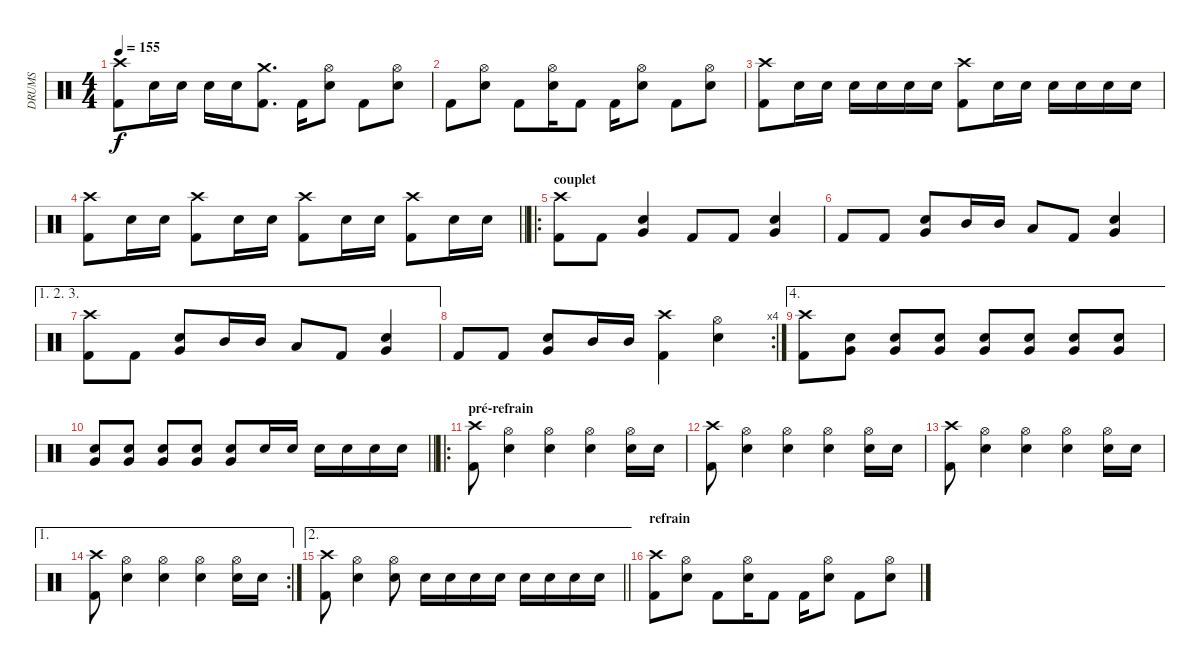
\track ("DRUMS" "DRUMS") {instrument percussion}
\staff {score}
\articulation defaults
\ts (4 4)
\tempo 155
\clef neutral
\ks c
("Crash high (hit)" "Kick (hit) 2").8{dy f} "Electric Snare (hit)".16 "Electric Snare (hit)".16 "Electric Snare (hit)".16 "Electric Snare (hit)".16 ("Crash medium (hit)" "Kick (hit) 2").8{d} "Kick (hit) 2".16 ("Hi-Hat (open)" "Electric Snare (hit)").8 "Kick (hit) 2".8 ("Hi-Hat (open)" "Electric Snare (hit)").8 |
"Kick (hit) 2".8 ("Hi-Hat (open)" "Electric Snare (hit)").8 "Kick (hit) 2".8 ("Hi-Hat (open)" "Electric Snare (hit)").16 "Kick (hit) 2".8 "Kick (hit) 2".16 ("Hi-Hat (open)" "Electric Snare (hit)").8 "Kick (hit) 2".8 ("Hi-Hat (open)" "Electric Snare (hit)").8 |
("Crash high (hit)" "Kick (hit) 2").8 "Electric Snare (hit)".16 "Electric Snare (hit)".16 "Electric Snare (hit)".16 "Electric Snare (hit)".16 "Electric Snare (hit)".16 "Electric Snare (hit)".16 ("Crash high (hit)" "Kick (hit) 2").8 "Electric Snare (hit)".16 "Electric Snare (hit)".16 "Electric Snare (hit)".16 "Electric Snare (hit)".16 "Electric Snare (hit)".16 "Electric Snare (hit)".16 |
\barLineRight lightlight
("Crash high (hit)" "Kick (hit) 2").8 "Electric Snare (hit)".16 "Electric Snare (hit)".16 ("Crash high (hit)" "Kick (hit) 2").8 "Electric Snare (hit)".16 "Electric Snare (hit)".16 ("Crash high (hit)" "Kick (hit) 2").8 "Electric Snare (hit)".16 "Electric Snare (hit)".16 ("Crash high (hit)" "Kick (hit) 2").8 "Electric Snare (hit)".16 "Electric Snare (hit)".16 |
\ro
\section ("" "couplet")
("Crash high (hit)" "Kick (hit) 2").8 "Kick (hit) 2".8 ("Very Low Tom (hit)" "Electric Snare (hit)").4 "Kick (hit) 2".8 "Kick (hit) 2".8 ("Very Low Tom (hit)" "Electric Snare (hit)").4 |
"Kick (hit) 2".8 "Kick (hit) 2".8 ("Very Low Tom (hit)" "Electric Snare (hit)").8 "Mid Tom (hit)".16 "Mid Tom (hit)".16 "Low Tom (hit)".8 "Kick (hit) 2".8 ("Electric Snare (hit)" "Very Low Tom (hit)").4 |
\ae (1 2 3)
("Crash high (hit)" "Kick (hit) 2").8 "Kick (hit) 2".8 ("Very Low Tom (hit)" "Electric Snare (hit)").8 "Mid Tom (hit)".16 "Mid Tom (hit)".16 "Low Tom (hit)".8 "Kick (hit) 2".8 ("Very Low Tom (hit)" "Electric Snare (hit)").4 |
\rc 4 "Kick (hit) 2".8 "Kick (hit) 2".8
("Very Low Tom (hit)" "Electric Snare (hit)").8 "Mid Tom (hit)".16 "Mid Tom (hit)".16 ("Crash high (hit)" "Kick (hit) 2").4 ("Hi-Hat (open)" "Electric Snare (hit)").4 |
\ae 4
("Crash high (hit)" "Kick (hit) 2").8 ("Very Low Tom (hit)" "Electric Snare (hit)").8 ("Very Low Tom (hit)" "Electric Snare (hit)").8 ("Very Low Tom (hit)" "Electric Snare (hit)").8 ("Very Low Tom (hit)" "Electric Snare (hit)").8 ("Very Low Tom (hit)" "Electric Snare (hit)").8 ("Very Low Tom (hit)" "Electric Snare (hit)").8 ("Very Low Tom (hit)" "Electric Snare (hit)").8 |
\barLineRight lightlight
("Very Low Tom (hit)" "Electric Snare (hit)").8 ("Very Low Tom (hit)" "Electric Snare (hit)").8 ("Very Low Tom (hit)" "Electric Snare (hit)").8 ("Very Low Tom (hit)" "Electric Snare (hit)").8 ("Very Low Tom (hit)" "Electric Snare (hit)").8 "Electric Snare (hit)".16 "Electric Snare (hit)".16 "Electric Snare (hit)".16 "Electric Snare (hit)".16 "Electric Snare (hit)".16 "Electric Snare (hit)".16 |
\ro
\section ("" "pré-refrain")
("Crash high (hit)" "Kick (hit) 2").8 ("Hi-Hat (open)" "Electric Snare (hit)").4 ("Hi-Hat (open)" "Electric Snare (hit)").4 ("Hi-Hat (open)" "Electric Snare (hit)").4 ("Hi-Hat (open)" "Electric Snare (hit)").16 "Electric Snare (hit)".16 |
("Crash high (hit)" "Kick (hit) 2").8 ("Hi-Hat (open)" "Electric Snare (hit)").4 ("Hi-Hat (open)" "Electric Snare (hit)").4 ("Hi-Hat (open)" "Electric Snare (hit)").4 ("Hi-Hat (open)" "Electric Snare (hit)").16 "Electric Snare (hit)".16 |
("Crash high (hit)" "Kick (hit) 2").8 ("Hi-Hat (open)" "Electric Snare (hit)").4 ("Hi-Hat (open)" "Electric Snare (hit)").4 ("Hi-Hat (open)" "Electric Snare (hit)").4 ("Hi-Hat (open)" "Electric Snare (hit)").16 "Electric Snare (hit)".16 |
\ae 1
\rc 2
("Crash high (hit)" "Kick (hit) 2").8 ("Hi-Hat (open)" "Electric Snare (hit)").4 ("Hi-Hat (open)" "Electric Snare (hit)").4 ("Hi-Hat (open)" "Electric Snare (hit)").4 ("Hi-Hat (open)" "Electric Snare (hit)").16 "Electric Snare (hit)".16 |
\ae 2
\barLineRight lightlight
("Crash high (hit)" "Kick (hit) 2").8 ("Hi-Hat (open)" "Electric Snare (hit)").4 ("Hi-Hat (open)" "Electric Snare (hit)").8 "Electric Snare (hit)".16 "Electric Snare (hit)".16 "Electric Snare (hit)".16 "Electric Snare (hit)".16 "Electric Snare (hit)".16 "Electric Snare (hit)".16 "Electric Snare (hit)".16 "Electric Snare (hit)".16 |
\section ("" "refrain")
("Crash high (hit)" "Kick (hit) 2").8 ("Hi-Hat (open)" "Electric Snare (hit)").8 "Kick (hit) 2".8 ("Hi-Hat (open)" "Electric Snare (hit)").16 "Kick (hit) 2".8 "Kick (hit) 2".16 ("Hi-Hat (open)" "Electric Snare (hit)").8 "Kick (hit) 2".8 ("Hi-Hat (open)" "Electric Snare (hit)").8
